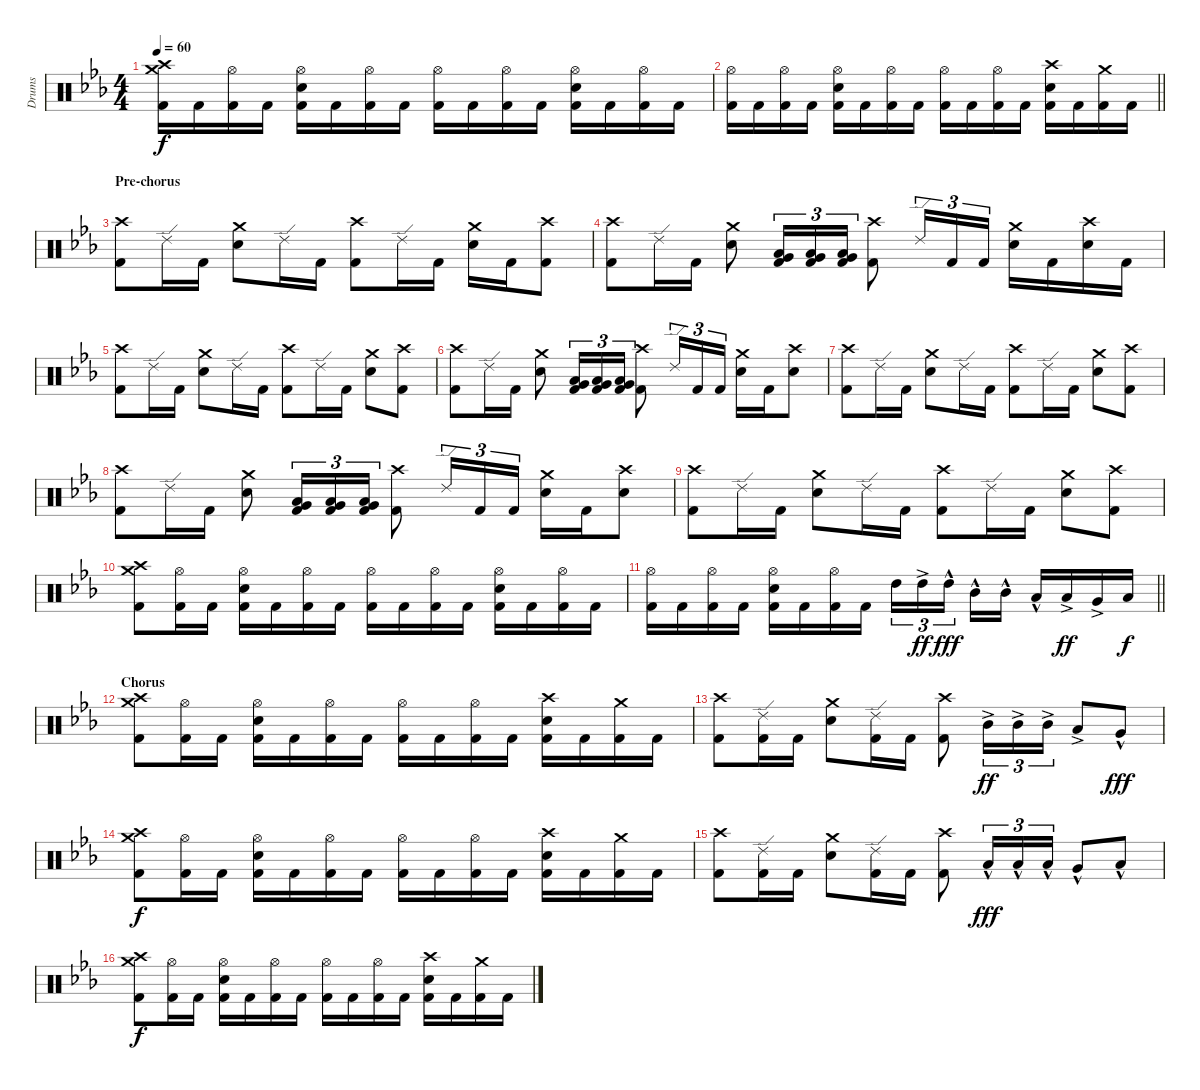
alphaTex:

\track ("Drums" "Drums") {instrument percussion}
\staff {score}
\articulation defaults
\ts (4 4)
\tempo 60
\clef neutral
\ks cminor
("Crash high (hit)" "Crash medium (hit)" "Kick (hit) 2").16{dy f} "Kick (hit) 2".16 ("Hi-Hat (open)" "Kick (hit) 2").16 "Kick (hit) 2".16 ("Hi-Hat (open)" "Snare (hit) 2" "Kick (hit) 2").16 "Kick (hit) 2".16 ("Hi-Hat (open)" "Kick (hit) 2").16 "Kick (hit) 2".16 ("Hi-Hat (open)" "Kick (hit) 2").16 "Kick (hit) 2".16 ("Hi-Hat (open)" "Kick (hit) 2").16 "Kick (hit) 2".16 ("Hi-Hat (open)" "Snare (hit) 2" "Kick (hit) 2").16 "Kick (hit) 2".16 ("Hi-Hat (open)" "Kick (hit) 2").16 "Kick (hit) 2".16 |
\barLineRight lightlight
("Hi-Hat (open)" "Kick (hit) 2").16 "Kick (hit) 2".16 ("Hi-Hat (open)" "Kick (hit) 2").16 "Kick (hit) 2".16 ("Hi-Hat (open)" "Snare (hit) 2" "Kick (hit) 2").16 "Kick (hit) 2".16 ("Hi-Hat (open)" "Kick (hit) 2").16 "Kick (hit) 2".16 ("Hi-Hat (open)" "Kick (hit) 2").16 "Kick (hit) 2".16 ("Hi-Hat (open)" "Kick (hit) 2").16 "Kick (hit) 2".16 ("Crash high (hit)" "Snare (hit) 2" "Kick (hit) 2").16 "Kick (hit) 2".16 ("Crash medium (hit)" "Kick (hit) 2").16 "Kick (hit) 2".16 |
\section ("" "Pre-chorus")
("Crash high (hit)" "Kick (hit) 2").8 "Ride (edge) 2".16 "Kick (hit) 2".16 ("Crash medium (hit)" "Snare (hit) 2").8 "Ride (edge) 2".16 "Kick (hit) 2".16 ("Crash high (hit)" "Kick (hit) 2").8 "Ride (edge) 2".16 "Kick (hit) 2".16 ("Crash medium (hit)" "Snare (hit) 2").16 "Kick (hit) 2".16 ("Crash high (hit)" "Kick (hit) 2").8 |
("Crash high (hit)" "Kick (hit) 2").8 "Ride (edge) 2".16 "Kick (hit) 2".16 ("Crash medium (hit)" "Snare (hit) 2").8 ("Low Floor Tom (hit)" "Very Low Tom (hit)" "Kick (hit) 2").16{tu (3 2)} ("Low Floor Tom (hit)" "Very Low Tom (hit)" "Kick (hit) 2").16{tu (3 2)} ("Low Floor Tom (hit)" "Very Low Tom (hit)" "Kick (hit) 2").16{tu (3 2)} ("Crash high (hit)" "Kick (hit) 2").8 "Ride (edge) 2".16{tu (3 2)} "Kick (hit) 2".16{tu (3 2)} "Kick (hit) 2".16{tu (3 2)} ("Crash medium (hit)" "Snare (hit) 2").16 "Kick (hit) 2".16 ("Crash high (hit)" "Snare (hit) 2").16 "Kick (hit) 2".16 |
("Crash high (hit)" "Kick (hit) 2").8 "Ride (edge) 2".16 "Kick (hit) 2".16 ("Crash medium (hit)" "Snare (hit) 2").8 "Ride (edge) 2".16 "Kick (hit) 2".16 ("Crash high (hit)" "Kick (hit) 2").8 "Ride (edge) 2".16 "Kick (hit) 2".16 ("Crash medium (hit)" "Snare (hit) 2").8 ("Crash high (hit)" "Kick (hit) 2").8 |
("Crash high (hit)" "Kick (hit) 2").8 "Ride (edge) 2".16 "Kick (hit) 2".16 ("Crash medium (hit)" "Snare (hit) 2").8 ("Low Floor Tom (hit)" "Very Low Tom (hit)" "Kick (hit) 2").16{tu (3 2)} ("Low Floor Tom (hit)" "Very Low Tom (hit)" "Kick (hit) 2").16{tu (3 2)} ("Low Floor Tom (hit)" "Very Low Tom (hit)" "Kick (hit) 2").16{tu (3 2)} ("Crash high (hit)" "Kick (hit) 2").8 "Ride (edge) 2".16{tu (3 2)} "Kick (hit) 2".16{tu (3 2)} "Kick (hit) 2".16{tu (3 2)} ("Crash medium (hit)" "Snare (hit) 2").16 "Kick (hit) 2".16 ("Crash high (hit)" "Snare (hit) 2").8 |
("Crash high (hit)" "Kick (hit) 2").8 "Ride (edge) 2".16 "Kick (hit) 2".16 ("Crash medium (hit)" "Snare (hit) 2").8 "Ride (edge) 2".16 "Kick (hit) 2".16 ("Crash high (hit)" "Kick (hit) 2").8 "Ride (edge) 2".16 "Kick (hit) 2".16 ("Crash medium (hit)" "Snare (hit) 2").8 ("Crash high (hit)" "Kick (hit) 2").8 |
("Crash high (hit)" "Kick (hit) 2").8 "Ride (edge) 2".16 "Kick (hit) 2".16 ("Crash medium (hit)" "Snare (hit) 2").8 ("Low Floor Tom (hit)" "Very Low Tom (hit)" "Kick (hit) 2").16{tu (3 2)} ("Low Floor Tom (hit)" "Very Low Tom (hit)" "Kick (hit) 2").16{tu (3 2)} ("Low Floor Tom (hit)" "Very Low Tom (hit)" "Kick (hit) 2").16{tu (3 2)} ("Crash high (hit)" "Kick (hit) 2").8 "Ride (edge) 2".16{tu (3 2)} "Kick (hit) 2".16{tu (3 2)} "Kick (hit) 2".16{tu (3 2)} ("Crash medium (hit)" "Snare (hit) 2").16 "Kick (hit) 2".16 ("Crash high (hit)" "Snare (hit) 2").8 |
("Crash high (hit)" "Kick (hit) 2").8 "Ride (edge) 2".16 "Kick (hit) 2".16 ("Crash medium (hit)" "Snare (hit) 2").8 "Ride (edge) 2".16 "Kick (hit) 2".16 ("Crash high (hit)" "Kick (hit) 2").8 "Ride (edge) 2".16 "Kick (hit) 2".16 ("Crash medium (hit)" "Snare (hit) 2").8 ("Crash high (hit)" "Kick (hit) 2").8 |
("Crash high (hit)" "Crash medium (hit)" "Kick (hit) 2").8 ("Hi-Hat (open)" "Kick (hit) 2").16 "Kick (hit) 2".16 ("Hi-Hat (open)" "Snare (hit) 2" "Kick (hit) 2").16 "Kick (hit) 2".16 ("Hi-Hat (open)" "Kick (hit) 2").16 "Kick (hit) 2".16 ("Hi-Hat (open)" "Kick (hit) 2").16 "Kick (hit) 2".16 ("Hi-Hat (open)" "Kick (hit) 2").16 "Kick (hit) 2".16 ("Hi-Hat (open)" "Snare (hit) 2" "Kick (hit) 2").16 "Kick (hit) 2".16 ("Hi-Hat (open)" "Kick (hit) 2").16 "Kick (hit) 2".16 |
\barLineRight lightlight
("Hi-Hat (open)" "Kick (hit) 2").16 "Kick (hit) 2".16 ("Hi-Hat (open)" "Kick (hit) 2").16 "Kick (hit) 2".16 ("Hi-Hat (open)" "Snare (hit) 2" "Kick (hit) 2").16 "Kick (hit) 2".16 ("Hi-Hat (open)" "Kick (hit) 2").16 "Kick (hit) 2".16 "High Tom (hit)".16{tu (3 2)} "High Tom (hit)"{ac}.16{tu (3 2) dy ff} "High Tom (hit)"{hac}.16{tu (3 2) dy fff beam splitsecondary} "Mid Tom (hit)"{hac}.16 "Mid Tom (hit)"{hac}.16 "Low Tom (hit)"{hac}.16 "Low Tom (hit)"{ac}.16{dy ff} "Very Low Tom (hit)"{ac}.16 "Low Floor Tom (hit)".16{dy f} |
\section ("" "Chorus")
("Crash high (hit)" "Crash medium (hit)" "Kick (hit) 2").8 ("Hi-Hat (open)" "Kick (hit) 2").16 "Kick (hit) 2".16 ("Hi-Hat (open)" "Snare (hit) 2" "Kick (hit) 2").16 "Kick (hit) 2".16 ("Hi-Hat (open)" "Kick (hit) 2").16 "Kick (hit) 2".16 ("Hi-Hat (open)" "Kick (hit) 2").16 "Kick (hit) 2".16 ("Hi-Hat (open)" "Kick (hit) 2").16 "Kick (hit) 2".16 ("Crash high (hit)" "Snare (hit) 2" "Kick (hit) 2").16 "Kick (hit) 2".16 ("Crash medium (hit)" "Kick (hit) 2").16 "Kick (hit) 2".16 |
("Crash high (hit)" "Kick (hit) 2").8 ("Ride (edge) 2" "Kick (hit) 2").16 "Kick (hit) 2".16 ("Crash medium (hit)" "Snare (hit) 2").8 ("Ride (edge) 2" "Kick (hit) 2").16 "Kick (hit) 2".16 ("Crash high (hit)" "Kick (hit) 2").8 "Mid Tom (hit)"{ac}.16{tu (3 2) dy ff} "Mid Tom (hit)"{ac}.16{tu (3 2)} "Mid Tom (hit)"{ac}.16{tu (3 2)} "Low Tom (hit)"{ac}.8 "Very Low Tom (hit)"{hac}.8{dy fff} |
("Crash high (hit)" "Crash medium (hit)" "Kick (hit) 2").8{dy f} ("Hi-Hat (open)" "Kick (hit) 2").16 "Kick (hit) 2".16 ("Hi-Hat (open)" "Snare (hit) 2" "Kick (hit) 2").16 "Kick (hit) 2".16 ("Hi-Hat (open)" "Kick (hit) 2").16 "Kick (hit) 2".16 ("Hi-Hat (open)" "Kick (hit) 2").16 "Kick (hit) 2".16 ("Hi-Hat (open)" "Kick (hit) 2").16 "Kick (hit) 2".16 ("Crash high (hit)" "Snare (hit) 2" "Kick (hit) 2").16 "Kick (hit) 2".16 ("Crash medium (hit)" "Kick (hit) 2").16 "Kick (hit) 2".16 |
("Crash high (hit)" "Kick (hit) 2").8 ("Ride (edge) 2" "Kick (hit) 2").16 "Kick (hit) 2".16 ("Crash medium (hit)" "Snare (hit) 2").8 ("Ride (edge) 2" "Kick (hit) 2").16 "Kick (hit) 2".16 ("Crash high (hit)" "Kick (hit) 2").8 "Low Tom (hit)"{hac}.16{tu (3 2) dy fff} "Low Tom (hit)"{hac}.16{tu (3 2)} "Low Tom (hit)"{hac}.16{tu (3 2)} "Very Low Tom (hit)"{hac}.8 "Low Floor Tom (hit)"{hac}.8 |
("Crash high (hit)" "Crash medium (hit)" "Kick (hit) 2").8{dy f} ("Hi-Hat (open)" "Kick (hit) 2").16 "Kick (hit) 2".16 ("Hi-Hat (open)" "Snare (hit) 2" "Kick (hit) 2").16 "Kick (hit) 2".16 ("Hi-Hat (open)" "Kick (hit) 2").16 "Kick (hit) 2".16 ("Hi-Hat (open)" "Kick (hit) 2").16 "Kick (hit) 2".16 ("Hi-Hat (open)" "Kick (hit) 2").16 "Kick (hit) 2".16 ("Crash high (hit)" "Snare (hit) 2" "Kick (hit) 2").16 "Kick (hit) 2".16 ("Crash medium (hit)" "Kick (hit) 2").16 "Kick (hit) 2".16
